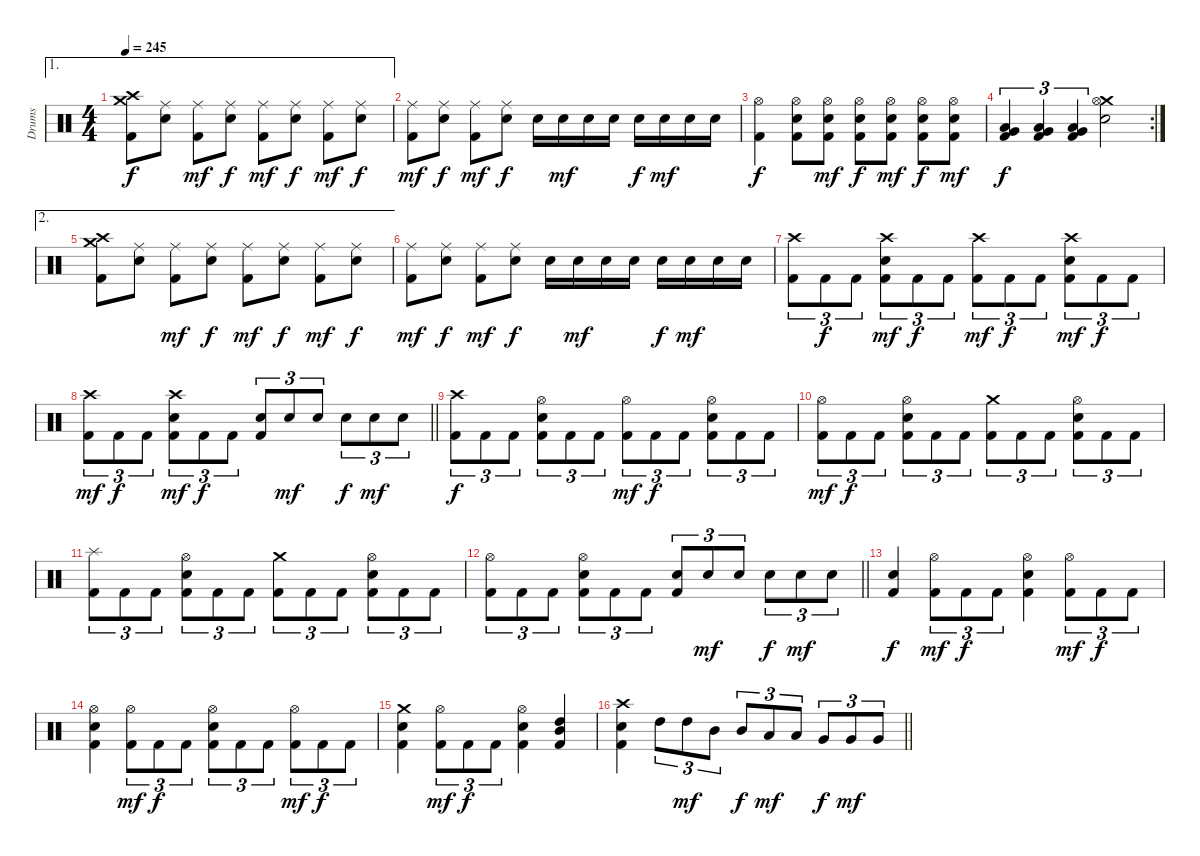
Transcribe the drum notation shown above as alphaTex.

\track ("Drums" "Drums") {instrument percussion}
\staff {score}
\articulation defaults
\ae 1
\ts (4 4)
\tempo 245
\clef neutral
\ks c
("Crash high (hit)" "Crash medium (hit)" "Kick (hit) 2").8{dy f} ("Ride (middle)" "Electric Snare (hit)").8 ("Ride (middle)" "Kick (hit) 2").8{dy mf} ("Ride (middle)" "Electric Snare (hit)").8{dy f} ("Ride (middle)" "Kick (hit) 2").8{dy mf} ("Ride (middle)" "Electric Snare (hit)").8{dy f} ("Ride (middle)" "Kick (hit) 2").8{dy mf} ("Ride (middle)" "Electric Snare (hit)").8{dy f} |
("Ride (middle)" "Kick (hit) 2").8{dy mf} ("Ride (middle)" "Electric Snare (hit)").8{dy f} ("Ride (middle)" "Kick (hit) 2").8{dy mf} ("Ride (middle)" "Electric Snare (hit)").8{dy f} "Electric Snare (hit)".16 "Electric Snare (hit)".16{dy mf} "Electric Snare (hit)".16 "Electric Snare (hit)".16 "Electric Snare (hit)".16{dy f} "Electric Snare (hit)".16{dy mf} "Electric Snare (hit)".16 "Electric Snare (hit)".16 |
("Hi-Hat (open)" "Kick (hit) 2").4{dy f} ("Hi-Hat (open)" "Electric Snare (hit)" "Kick (hit) 2").8 ("Hi-Hat (open)" "Electric Snare (hit)" "Kick (hit) 2").8{dy mf} ("Hi-Hat (open)" "Electric Snare (hit)" "Kick (hit) 2").8{dy f} ("Hi-Hat (open)" "Electric Snare (hit)" "Kick (hit) 2").8{dy mf} ("Hi-Hat (open)" "Electric Snare (hit)" "Kick (hit) 2").8{dy f} ("Hi-Hat (open)" "Electric Snare (hit)" "Kick (hit) 2").8{dy mf} |
\rc 2
("Low Tom (hit)" "Very Low Tom (hit)" "Kick (hit) 2").4{tu (3 2) dy f} ("Low Tom (hit)" "Very Low Tom (hit)" "Kick (hit) 2").4{tu (3 2)} ("Low Tom (hit)" "Very Low Tom (hit)" "Kick (hit) 2").4{tu (3 2)} ("Crash medium (hit)" "Hi-Hat (open)" "Electric Snare (hit)").2 |
\ae 2
("Crash high (hit)" "Crash medium (hit)" "Kick (hit) 2").8 ("Ride (middle)" "Electric Snare (hit)").8 ("Ride (middle)" "Kick (hit) 2").8{dy mf} ("Ride (middle)" "Electric Snare (hit)").8{dy f} ("Ride (middle)" "Kick (hit) 2").8{dy mf} ("Ride (middle)" "Electric Snare (hit)").8{dy f} ("Ride (middle)" "Kick (hit) 2").8{dy mf} ("Ride (middle)" "Electric Snare (hit)").8{dy f} |
("Ride (middle)" "Kick (hit) 2").8{dy mf} ("Ride (middle)" "Electric Snare (hit)").8{dy f} ("Ride (middle)" "Kick (hit) 2").8{dy mf} ("Ride (middle)" "Electric Snare (hit)").8{dy f} "Electric Snare (hit)".16 "Electric Snare (hit)".16{dy mf} "Electric Snare (hit)".16 "Electric Snare (hit)".16 "Electric Snare (hit)".16{dy f} "Electric Snare (hit)".16{dy mf} "Electric Snare (hit)".16 "Electric Snare (hit)".16 |
("Crash high (hit)" "Kick (hit) 2").8{tu (3 2)} "Kick (hit) 2".8{tu (3 2) dy f} "Kick (hit) 2".8{tu (3 2)} ("Crash high (hit)" "Electric Snare (hit)" "Kick (hit) 2").8{tu (3 2) dy mf} "Kick (hit) 2".8{tu (3 2) dy f} "Kick (hit) 2".8{tu (3 2)} ("Crash high (hit)" "Kick (hit) 2").8{tu (3 2) dy mf} "Kick (hit) 2".8{tu (3 2) dy f} "Kick (hit) 2".8{tu (3 2)} ("Crash high (hit)" "Electric Snare (hit)" "Kick (hit) 2").8{tu (3 2) dy mf} "Kick (hit) 2".8{tu (3 2) dy f} "Kick (hit) 2".8{tu (3 2)} |
\barLineRight lightlight
("Crash high (hit)" "Kick (hit) 2").8{tu (3 2) dy mf} "Kick (hit) 2".8{tu (3 2) dy f} "Kick (hit) 2".8{tu (3 2)} ("Crash high (hit)" "Electric Snare (hit)" "Kick (hit) 2").8{tu (3 2) dy mf} "Kick (hit) 2".8{tu (3 2) dy f} "Kick (hit) 2".8{tu (3 2)} ("Electric Snare (hit)" "Kick (hit) 2").8{tu (3 2)} "Electric Snare (hit)".8{tu (3 2) dy mf} "Electric Snare (hit)".8{tu (3 2)} "Electric Snare (hit)".8{tu (3 2) dy f} "Electric Snare (hit)".8{tu (3 2) dy mf} "Electric Snare (hit)".8{tu (3 2)} |
("Crash high (hit)" "Kick (hit) 2").8{tu (3 2) dy f} "Kick (hit) 2".8{tu (3 2)} "Kick (hit) 2".8{tu (3 2)} ("Hi-Hat (open)" "Electric Snare (hit)" "Kick (hit) 2").8{tu (3 2)} "Kick (hit) 2".8{tu (3 2)} "Kick (hit) 2".8{tu (3 2)} ("Hi-Hat (open)" "Kick (hit) 2").8{tu (3 2) dy mf} "Kick (hit) 2".8{tu (3 2) dy f} "Kick (hit) 2".8{tu (3 2)} ("Hi-Hat (open)" "Electric Snare (hit)" "Kick (hit) 2").8{tu (3 2)} "Kick (hit) 2".8{tu (3 2)} "Kick (hit) 2".8{tu (3 2)} |
("Hi-Hat (open)" "Kick (hit) 2").8{tu (3 2) dy mf} "Kick (hit) 2".8{tu (3 2) dy f} "Kick (hit) 2".8{tu (3 2)} ("Hi-Hat (open)" "Electric Snare (hit)" "Kick (hit) 2").8{tu (3 2)} "Kick (hit) 2".8{tu (3 2)} "Kick (hit) 2".8{tu (3 2)} ("Crash medium (hit)" "Kick (hit) 2").8{tu (3 2)} "Kick (hit) 2".8{tu (3 2)} "Kick (hit) 2".8{tu (3 2)} ("Hi-Hat (open)" "Electric Snare (hit)" "Kick (hit) 2").8{tu (3 2)} "Kick (hit) 2".8{tu (3 2)} "Kick (hit) 2".8{tu (3 2)} |
("Splash (hit)" "Kick (hit) 2").8{tu (3 2)} "Kick (hit) 2".8{tu (3 2)} "Kick (hit) 2".8{tu (3 2)} ("Hi-Hat (open)" "Electric Snare (hit)" "Kick (hit) 2").8{tu (3 2)} "Kick (hit) 2".8{tu (3 2)} "Kick (hit) 2".8{tu (3 2)} ("Crash medium (hit)" "Kick (hit) 2").8{tu (3 2)} "Kick (hit) 2".8{tu (3 2)} "Kick (hit) 2".8{tu (3 2)} ("Hi-Hat (open)" "Electric Snare (hit)" "Kick (hit) 2").8{tu (3 2)} "Kick (hit) 2".8{tu (3 2)} "Kick (hit) 2".8{tu (3 2)} |
\barLineRight lightlight
("Hi-Hat (open)" "Kick (hit) 2").8{tu (3 2)} "Kick (hit) 2".8{tu (3 2)} "Kick (hit) 2".8{tu (3 2)} ("Hi-Hat (open)" "Electric Snare (hit)" "Kick (hit) 2").8{tu (3 2)} "Kick (hit) 2".8{tu (3 2)} "Kick (hit) 2".8{tu (3 2)} ("Electric Snare (hit)" "Kick (hit) 2").8{tu (3 2)} "Electric Snare (hit)".8{tu (3 2) dy mf} "Electric Snare (hit)".8{tu (3 2)} "Electric Snare (hit)".8{tu (3 2) dy f} "Electric Snare (hit)".8{tu (3 2) dy mf} "Electric Snare (hit)".8{tu (3 2)} |
("Electric Snare (hit)" "Kick (hit) 2").4{dy f} ("Hi-Hat (open)" "Kick (hit) 2").8{tu (3 2) dy mf} "Kick (hit) 2".8{tu (3 2) dy f} "Kick (hit) 2".8{tu (3 2)} ("Hi-Hat (open)" "Electric Snare (hit)" "Kick (hit) 2").4 ("Hi-Hat (open)" "Kick (hit) 2").8{tu (3 2) dy mf} "Kick (hit) 2".8{tu (3 2) dy f} "Kick (hit) 2".8{tu (3 2)} |
("Hi-Hat (open)" "Electric Snare (hit)" "Kick (hit) 2").4 ("Hi-Hat (open)" "Kick (hit) 2").8{tu (3 2) dy mf} "Kick (hit) 2".8{tu (3 2) dy f} "Kick (hit) 2".8{tu (3 2)} ("Hi-Hat (open)" "Electric Snare (hit)" "Kick (hit) 2").8{tu (3 2)} "Kick (hit) 2".8{tu (3 2)} "Kick (hit) 2".8{tu (3 2)} ("Hi-Hat (open)" "Kick (hit) 2").8{tu (3 2) dy mf} "Kick (hit) 2".8{tu (3 2) dy f} "Kick (hit) 2".8{tu (3 2)} |
("Crash medium (hit)" "Electric Snare (hit)" "Kick (hit) 2").4 ("Hi-Hat (open)" "Kick (hit) 2").8{tu (3 2) dy mf} "Kick (hit) 2".8{tu (3 2) dy f} "Kick (hit) 2".8{tu (3 2)} ("Hi-Hat (open)" "Electric Snare (hit)" "Kick (hit) 2").4 ("High Tom (hit)" "Mid Tom (hit)" "Kick (hit) 2").4 |
\barLineRight lightlight
("Crash high (hit)" "Electric Snare (hit)" "Kick (hit) 2").4 "High Tom (hit)".8{tu (3 2)} "High Tom (hit)".8{tu (3 2) dy mf} "Mid Tom (hit)".8{tu (3 2)} "Mid Tom (hit)".8{tu (3 2) dy f} "Low Tom (hit)".8{tu (3 2) dy mf} "Low Tom (hit)".8{tu (3 2)} "Very Low Tom (hit)".8{tu (3 2) dy f} "Very Low Tom (hit)".8{tu (3 2) dy mf} "Very Low Tom (hit)".8{tu (3 2)}
